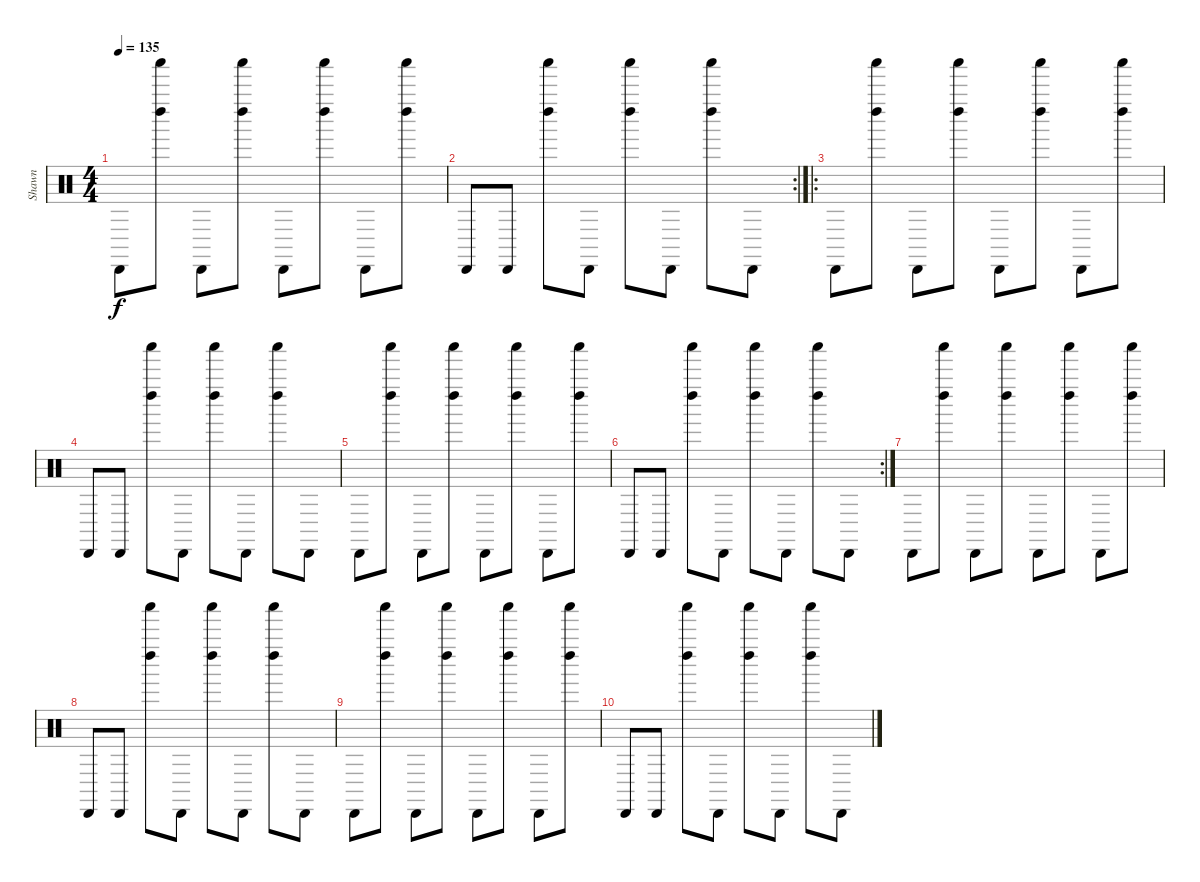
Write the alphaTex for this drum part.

\track ("Shawn" "Shawn") {instrument percussion}
\staff {score}
\articulation defaults
\ts (4 4)
\tempo 135
\clef neutral
\ks c "Cabasa (hit)".8{dy f}
("Left Maraca (hit)" "Shaker (hit)").8 "Cabasa (hit)".8 ("Left Maraca (hit)" "Shaker (hit)").8 "Cabasa (hit)".8 ("Left Maraca (hit)" "Shaker (hit)").8 "Cabasa (hit)".8 ("Left Maraca (hit)" "Shaker (hit)").8 |
\rc 2 "Cabasa (hit)".8 "Cabasa (hit)".8
("Left Maraca (hit)" "Shaker (hit)").8 "Cabasa (hit)".8 ("Left Maraca (hit)" "Shaker (hit)").8 "Cabasa (hit)".8 ("Left Maraca (hit)" "Shaker (hit)").8 "Cabasa (hit)".8 |
\ro "Cabasa (hit)".8
("Left Maraca (hit)" "Shaker (hit)").8 "Cabasa (hit)".8 ("Left Maraca (hit)" "Shaker (hit)").8 "Cabasa (hit)".8 ("Left Maraca (hit)" "Shaker (hit)").8 "Cabasa (hit)".8 ("Left Maraca (hit)" "Shaker (hit)").8 |
"Cabasa (hit)".8 "Cabasa (hit)".8 ("Left Maraca (hit)" "Shaker (hit)").8 "Cabasa (hit)".8 ("Left Maraca (hit)" "Shaker (hit)").8 "Cabasa (hit)".8 ("Left Maraca (hit)" "Shaker (hit)").8 "Cabasa (hit)".8 |
"Cabasa (hit)".8 ("Left Maraca (hit)" "Shaker (hit)").8 "Cabasa (hit)".8 ("Left Maraca (hit)" "Shaker (hit)").8 "Cabasa (hit)".8 ("Left Maraca (hit)" "Shaker (hit)").8 "Cabasa (hit)".8 ("Left Maraca (hit)" "Shaker (hit)").8 |
\rc 2 "Cabasa (hit)".8 "Cabasa (hit)".8
("Left Maraca (hit)" "Shaker (hit)").8 "Cabasa (hit)".8 ("Left Maraca (hit)" "Shaker (hit)").8 "Cabasa (hit)".8 ("Left Maraca (hit)" "Shaker (hit)").8 "Cabasa (hit)".8 |
"Cabasa (hit)".8 ("Left Maraca (hit)" "Shaker (hit)").8 "Cabasa (hit)".8 ("Left Maraca (hit)" "Shaker (hit)").8 "Cabasa (hit)".8 ("Left Maraca (hit)" "Shaker (hit)").8 "Cabasa (hit)".8 ("Left Maraca (hit)" "Shaker (hit)").8 |
"Cabasa (hit)".8 "Cabasa (hit)".8 ("Left Maraca (hit)" "Shaker (hit)").8 "Cabasa (hit)".8 ("Left Maraca (hit)" "Shaker (hit)").8 "Cabasa (hit)".8 ("Left Maraca (hit)" "Shaker (hit)").8 "Cabasa (hit)".8 |
"Cabasa (hit)".8 ("Left Maraca (hit)" "Shaker (hit)").8 "Cabasa (hit)".8 ("Left Maraca (hit)" "Shaker (hit)").8 "Cabasa (hit)".8 ("Left Maraca (hit)" "Shaker (hit)").8 "Cabasa (hit)".8 ("Left Maraca (hit)" "Shaker (hit)").8 |
"Cabasa (hit)".8 "Cabasa (hit)".8 ("Left Maraca (hit)" "Shaker (hit)").8 "Cabasa (hit)".8 ("Left Maraca (hit)" "Shaker (hit)").8 "Cabasa (hit)".8 ("Left Maraca (hit)" "Shaker (hit)").8 "Cabasa (hit)".8
